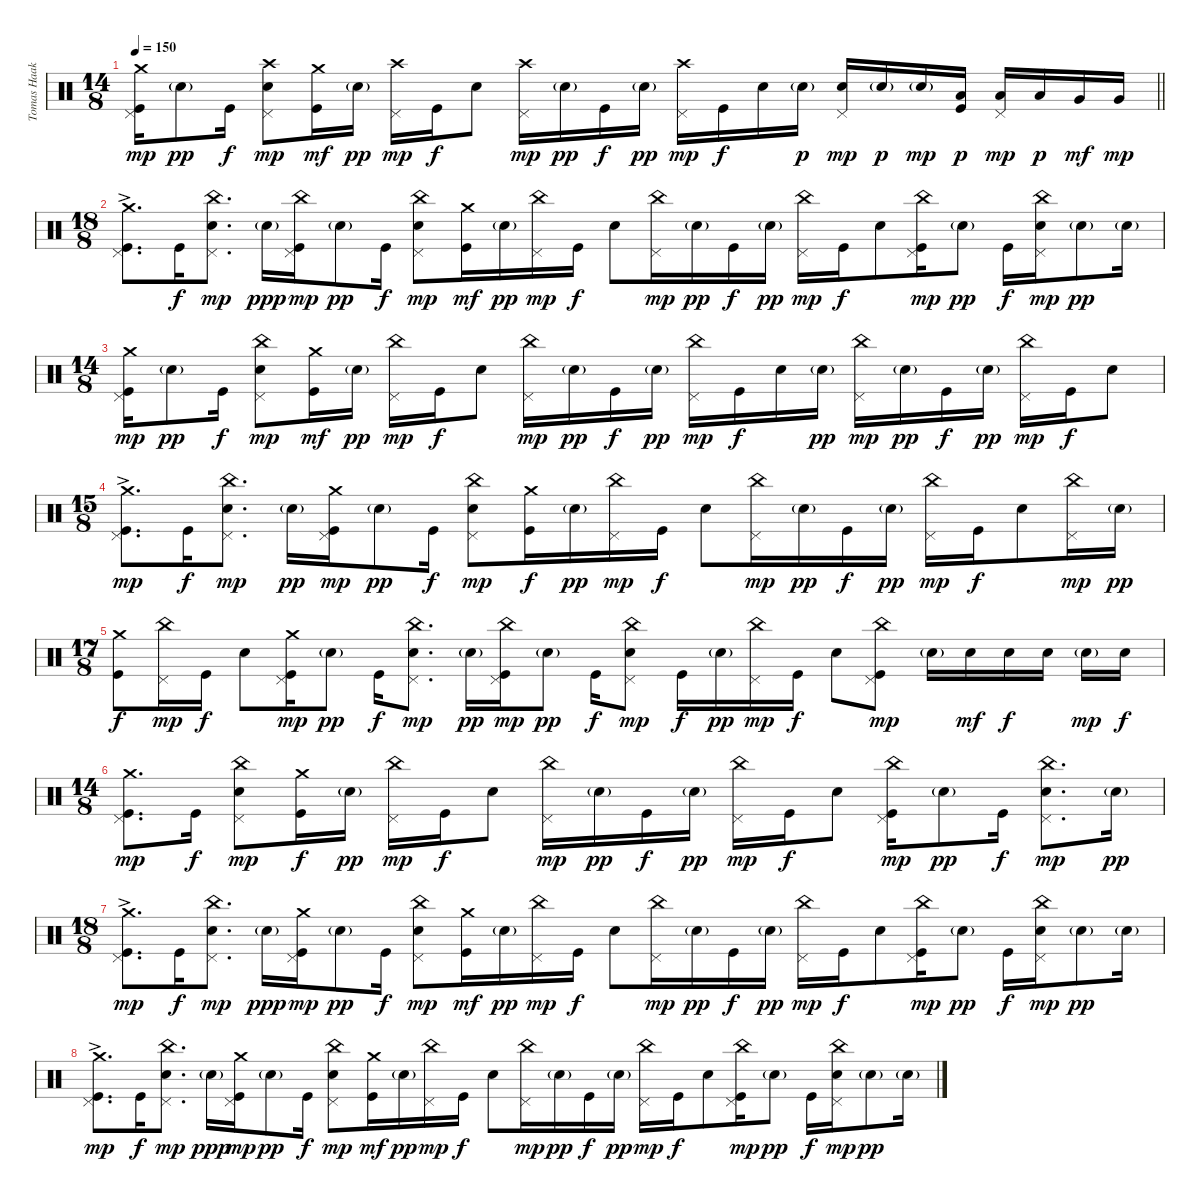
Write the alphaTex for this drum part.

\track ("Tomas Haake (Drums)" "Tomas Haak") {instrument percussion}
\staff {score}
\articulation defaults
\ts (14 8)
\tempo 150
\clef neutral
\barLineRight lightlight
\ks c
("Crash medium (hit)" "Pedal Hi-Hat (hit)" "Kick (hit)").16{dy mp} "Electric Snare (hit)"{g}.8{dy pp} "Kick (hit)".16{dy f} ("Crash high (hit)" "Pedal Hi-Hat (hit)" "Electric Snare (hit)").8{dy mp} ("Crash medium (hit)" "Kick (hit)").16{dy mf} "Electric Snare (hit)"{g}.16{dy pp} ("Crash high (hit)" "Pedal Hi-Hat (hit)").16{dy mp} "Kick (hit)".16{dy f} "Electric Snare (hit)".8 ("Crash high (hit)" "Pedal Hi-Hat (hit)").16{dy mp} "Electric Snare (hit)"{g}.16{dy pp} "Kick (hit)".16{dy f} "Electric Snare (hit)"{g}.16{dy pp} ("Crash high (hit)" "Pedal Hi-Hat (hit)").16{dy mp} "Kick (hit)".16{dy f} "Electric Snare (hit)".16 "Electric Snare (hit)"{g}.16{dy p} ("Pedal Hi-Hat (hit)" "Electric Snare (hit)").16{dy mp} "Electric Snare (hit)"{g}.16{dy p} "Electric Snare (hit)"{g}.16{dy mp} ("Low Tom (hit)" "Kick (hit)").16{dy p} ("Pedal Hi-Hat (hit)" "Low Tom (hit)").16{dy mp} "Low Tom (hit)".16{dy p} "Very Low Tom (hit)".16{dy mf} "Very Low Tom (hit)".16{dy mp} |
\ts (18 8)
("Crash medium (hit)"{ac} "Pedal Hi-Hat (hit)" "Kick (hit)").8{d volume 10} "Kick (hit)".16{dy f} ("China (hit)" "Pedal Hi-Hat (hit)" "Electric Snare (hit)").8{d dy mp} "Electric Snare (hit)"{g}.16{dy ppp} ("China (hit)" "Pedal Hi-Hat (hit)" "Kick (hit)").16{dy mp} "Electric Snare (hit)"{g}.8{dy pp} "Kick (hit)".16{dy f} ("China (hit)" "Pedal Hi-Hat (hit)" "Electric Snare (hit)").8{dy mp} ("Crash medium (hit)" "Kick (hit)").16{dy mf} "Electric Snare (hit)"{g}.16{dy pp} ("China (hit)" "Pedal Hi-Hat (hit)").16{dy mp} "Kick (hit)".16{dy f} "Electric Snare (hit)".8 ("China (hit)" "Pedal Hi-Hat (hit)").16{dy mp} "Electric Snare (hit)"{g}.16{dy pp} "Kick (hit)".16{dy f} "Electric Snare (hit)"{g}.16{dy pp} ("China (hit)" "Pedal Hi-Hat (hit)").16{dy mp} "Kick (hit)".16{dy f} "Electric Snare (hit)".8 ("China (hit)" "Pedal Hi-Hat (hit)" "Kick (hit)").16{dy mp} "Electric Snare (hit)"{g}.8{dy pp} "Kick (hit)".16{dy f} ("China (hit)" "Pedal Hi-Hat (hit)" "Electric Snare (hit)").16{dy mp} "Electric Snare (hit)"{g}.8{dy pp} "Electric Snare (hit)"{g}.16 |
\ts (14 8)
("Crash medium (hit)" "Pedal Hi-Hat (hit)" "Kick (hit)").16{dy mp} "Electric Snare (hit)"{g}.8{dy pp} "Kick (hit)".16{dy f} ("China (hit)" "Pedal Hi-Hat (hit)" "Electric Snare (hit)").8{dy mp} ("Crash medium (hit)" "Kick (hit)").16{dy mf} "Electric Snare (hit)"{g}.16{dy pp} ("China (hit)" "Pedal Hi-Hat (hit)").16{dy mp} "Kick (hit)".16{dy f} "Electric Snare (hit)".8 ("China (hit)" "Pedal Hi-Hat (hit)").16{dy mp} "Electric Snare (hit)"{g}.16{dy pp} "Kick (hit)".16{dy f} "Electric Snare (hit)"{g}.16{dy pp} ("China (hit)" "Pedal Hi-Hat (hit)").16{dy mp} "Kick (hit)".16{dy f} "Electric Snare (hit)".16 "Electric Snare (hit)"{g}.16{dy pp} ("China (hit)" "Pedal Hi-Hat (hit)").16{dy mp} "Electric Snare (hit)"{g}.16{dy pp} "Kick (hit)".16{dy f} "Electric Snare (hit)"{g}.16{dy pp} ("China (hit)" "Pedal Hi-Hat (hit)").16{dy mp} "Kick (hit)".16{dy f} "Electric Snare (hit)".8 |
\ts (15 8)
("Crash medium (hit)"{ac} "Pedal Hi-Hat (hit)" "Kick (hit)").8{d dy mp volume 7} "Kick (hit)".16{dy f} ("China (hit)" "Pedal Hi-Hat (hit)" "Electric Snare (hit)").8{d dy mp} "Electric Snare (hit)"{g}.16{dy pp} ("Crash medium (hit)" "Pedal Hi-Hat (hit)" "Kick (hit)").16{dy mp} "Electric Snare (hit)"{g}.8{dy pp} "Kick (hit)".16{dy f} ("China (hit)" "Pedal Hi-Hat (hit)" "Electric Snare (hit)").8{dy mp} ("Crash medium (hit)" "Kick (hit)").16{dy f} "Electric Snare (hit)"{g}.16{dy pp} ("China (hit)" "Pedal Hi-Hat (hit)").16{dy mp} "Kick (hit)".16{dy f} "Electric Snare (hit)".8 ("China (hit)" "Pedal Hi-Hat (hit)").16{dy mp} "Electric Snare (hit)"{g}.16{dy pp} "Kick (hit)".16{dy f} "Electric Snare (hit)"{g}.16{dy pp} ("China (hit)" "Pedal Hi-Hat (hit)").16{dy mp} "Kick (hit)".16{dy f} "Electric Snare (hit)".8 ("China (hit)" "Pedal Hi-Hat (hit)").16{dy mp} "Electric Snare (hit)"{g}.16{dy pp} |
\ts (17 8)
("Crash medium (hit)" "Kick (hit)").8{dy f} ("China (hit)" "Pedal Hi-Hat (hit)").16{dy mp} "Kick (hit)".16{dy f} "Electric Snare (hit)".8 ("Crash medium (hit)" "Pedal Hi-Hat (hit)" "Kick (hit)").16{dy mp} "Electric Snare (hit)"{g}.8{dy pp} "Kick (hit)".16{dy f} ("China (hit)" "Pedal Hi-Hat (hit)" "Electric Snare (hit)").8{d dy mp} "Electric Snare (hit)"{g}.16{dy pp} ("China (hit)" "Pedal Hi-Hat (hit)" "Kick (hit)").16{dy mp} "Electric Snare (hit)"{g}.8{dy pp} "Kick (hit)".16{dy f} ("China (hit)" "Pedal Hi-Hat (hit)" "Electric Snare (hit)").8{dy mp} "Kick (hit)".16{dy f} "Electric Snare (hit)"{g}.16{dy pp} ("China (hit)" "Pedal Hi-Hat (hit)").16{dy mp} "Kick (hit)".16{dy f} "Electric Snare (hit)".8 ("China (hit)" "Pedal Hi-Hat (hit)" "Kick (hit)").8{dy mp} "Electric Snare (hit)"{g}.16 "Electric Snare (hit)".16{dy mf} "Electric Snare (hit)".16{dy f} "Electric Snare (hit)".16 "Electric Snare (hit)"{g}.16{dy mp} "Electric Snare (hit)".16{dy f} |
\ts (14 8)
("Crash medium (hit)" "Pedal Hi-Hat (hit)" "Kick (hit)").8{d dy mp volume 4} "Kick (hit)".16{dy f} ("China (hit)" "Pedal Hi-Hat (hit)" "Electric Snare (hit)").8{dy mp} ("Crash medium (hit)" "Kick (hit)").16{dy f} "Electric Snare (hit)"{g}.16{dy pp} ("China (hit)" "Pedal Hi-Hat (hit)").16{dy mp} "Kick (hit)".16{dy f} "Electric Snare (hit)".8 ("China (hit)" "Pedal Hi-Hat (hit)").16{dy mp} "Electric Snare (hit)"{g}.16{dy pp} "Kick (hit)".16{dy f} "Electric Snare (hit)"{g}.16{dy pp} ("China (hit)" "Pedal Hi-Hat (hit)").16{dy mp} "Kick (hit)".16{dy f} "Electric Snare (hit)".8 ("China (hit)" "Pedal Hi-Hat (hit)" "Kick (hit)").16{dy mp} "Electric Snare (hit)"{g}.8{dy pp} "Kick (hit)".16{dy f} ("China (hit)" "Pedal Hi-Hat (hit)" "Electric Snare (hit)").8{d dy mp} "Electric Snare (hit)"{g}.16{dy pp} |
\ts (18 8)
("Crash medium (hit)"{ac} "Pedal Hi-Hat (hit)" "Kick (hit)").8{d dy mp} "Kick (hit)".16{dy f} ("China (hit)" "Pedal Hi-Hat (hit)" "Electric Snare (hit)").8{d dy mp} "Electric Snare (hit)"{g}.16{dy ppp} ("Crash medium (hit)" "Pedal Hi-Hat (hit)" "Kick (hit)").16{dy mp} "Electric Snare (hit)"{g}.8{dy pp} "Kick (hit)".16{dy f} ("China (hit)" "Pedal Hi-Hat (hit)" "Electric Snare (hit)").8{dy mp} ("Crash medium (hit)" "Kick (hit)").16{dy mf} "Electric Snare (hit)"{g}.16{dy pp} ("China (hit)" "Pedal Hi-Hat (hit)").16{dy mp} "Kick (hit)".16{dy f} "Electric Snare (hit)".8 ("China (hit)" "Pedal Hi-Hat (hit)").16{dy mp} "Electric Snare (hit)"{g}.16{dy pp} "Kick (hit)".16{dy f} "Electric Snare (hit)"{g}.16{dy pp} ("China (hit)" "Pedal Hi-Hat (hit)").16{dy mp} "Kick (hit)".16{dy f} "Electric Snare (hit)".8 ("China (hit)" "Pedal Hi-Hat (hit)" "Kick (hit)").16{dy mp} "Electric Snare (hit)"{g}.8{dy pp} "Kick (hit)".16{dy f} ("China (hit)" "Pedal Hi-Hat (hit)" "Electric Snare (hit)").16{dy mp} "Electric Snare (hit)"{g}.8{dy pp} "Electric Snare (hit)"{g}.16 |
("Crash medium (hit)"{ac} "Pedal Hi-Hat (hit)" "Kick (hit)").8{d dy mp volume 0} "Kick (hit)".16{dy f} ("China (hit)" "Pedal Hi-Hat (hit)" "Electric Snare (hit)").8{d dy mp} "Electric Snare (hit)"{g}.16{dy ppp} ("Crash medium (hit)" "Pedal Hi-Hat (hit)" "Kick (hit)").16{dy mp} "Electric Snare (hit)"{g}.8{dy pp} "Kick (hit)".16{dy f} ("China (hit)" "Pedal Hi-Hat (hit)" "Electric Snare (hit)").8{dy mp} ("Crash medium (hit)" "Kick (hit)").16{dy mf} "Electric Snare (hit)"{g}.16{dy pp} ("China (hit)" "Pedal Hi-Hat (hit)").16{dy mp} "Kick (hit)".16{dy f} "Electric Snare (hit)".8 ("China (hit)" "Pedal Hi-Hat (hit)").16{dy mp} "Electric Snare (hit)"{g}.16{dy pp} "Kick (hit)".16{dy f} "Electric Snare (hit)"{g}.16{dy pp} ("China (hit)" "Pedal Hi-Hat (hit)").16{dy mp} "Kick (hit)".16{dy f} "Electric Snare (hit)".8 ("China (hit)" "Pedal Hi-Hat (hit)" "Kick (hit)").16{dy mp} "Electric Snare (hit)"{g}.8{dy pp} "Kick (hit)".16{dy f} ("China (hit)" "Pedal Hi-Hat (hit)" "Electric Snare (hit)").16{dy mp} "Electric Snare (hit)"{g}.8{dy pp} "Electric Snare (hit)"{g}.16
